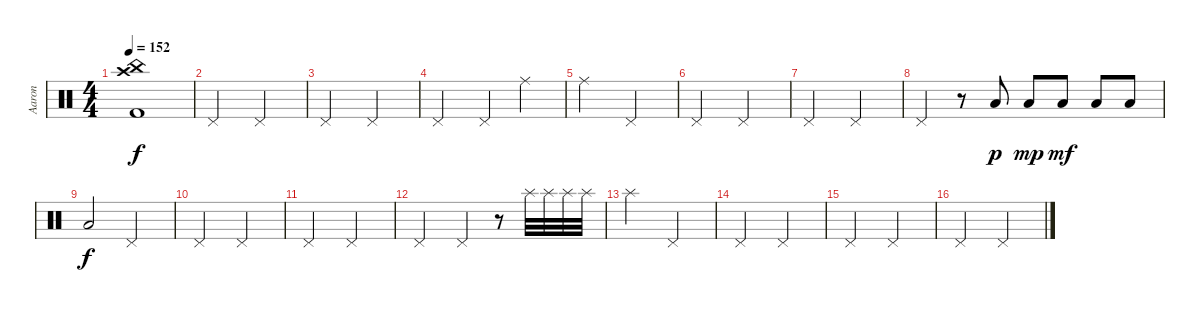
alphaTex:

\track ("Aaron" "Aaron") {instrument percussion}
\staff {score}
\articulation defaults
\ts (4 4)
\tempo 152
\clef neutral
\ks c
("Crash high (hit)" "China (hit)" "Kick (hit) 2").1{dy f} |
"Pedal Hi-Hat (hit)".2 "Pedal Hi-Hat (hit)".2 |
"Pedal Hi-Hat (hit)".2 "Pedal Hi-Hat (hit)".2 |
"Pedal Hi-Hat (hit)".2 "Pedal Hi-Hat (hit)".4 "Ride (middle)".4 |
"Ride (middle)".2 "Pedal Hi-Hat (hit)".2 |
"Pedal Hi-Hat (hit)".2 "Pedal Hi-Hat (hit)".2 |
"Pedal Hi-Hat (hit)".2 "Pedal Hi-Hat (hit)".2 |
"Pedal Hi-Hat (hit)".4 r.8 "Low Tom (hit)".8{dy p} "Low Tom (hit)".8{dy mp} "Low Tom (hit)".8{dy mf} "Low Tom (hit)".8 "Low Tom (hit)".8 |
"Low Tom (hit)".2{dy f} "Pedal Hi-Hat (hit)".2 |
"Pedal Hi-Hat (hit)".2 "Pedal Hi-Hat (hit)".2 |
"Pedal Hi-Hat (hit)".2 "Pedal Hi-Hat (hit)".2 |
"Pedal Hi-Hat (hit)".2 "Pedal Hi-Hat (hit)".4 r.8 "Splash (hit)".32 "Splash (hit)".32 "Splash (hit)".32 "Splash (hit)".32 |
"Splash (hit)".2 "Pedal Hi-Hat (hit)".2 |
"Pedal Hi-Hat (hit)".2 "Pedal Hi-Hat (hit)".2 |
"Pedal Hi-Hat (hit)".2 "Pedal Hi-Hat (hit)".2 |
"Pedal Hi-Hat (hit)".2 "Pedal Hi-Hat (hit)".2
